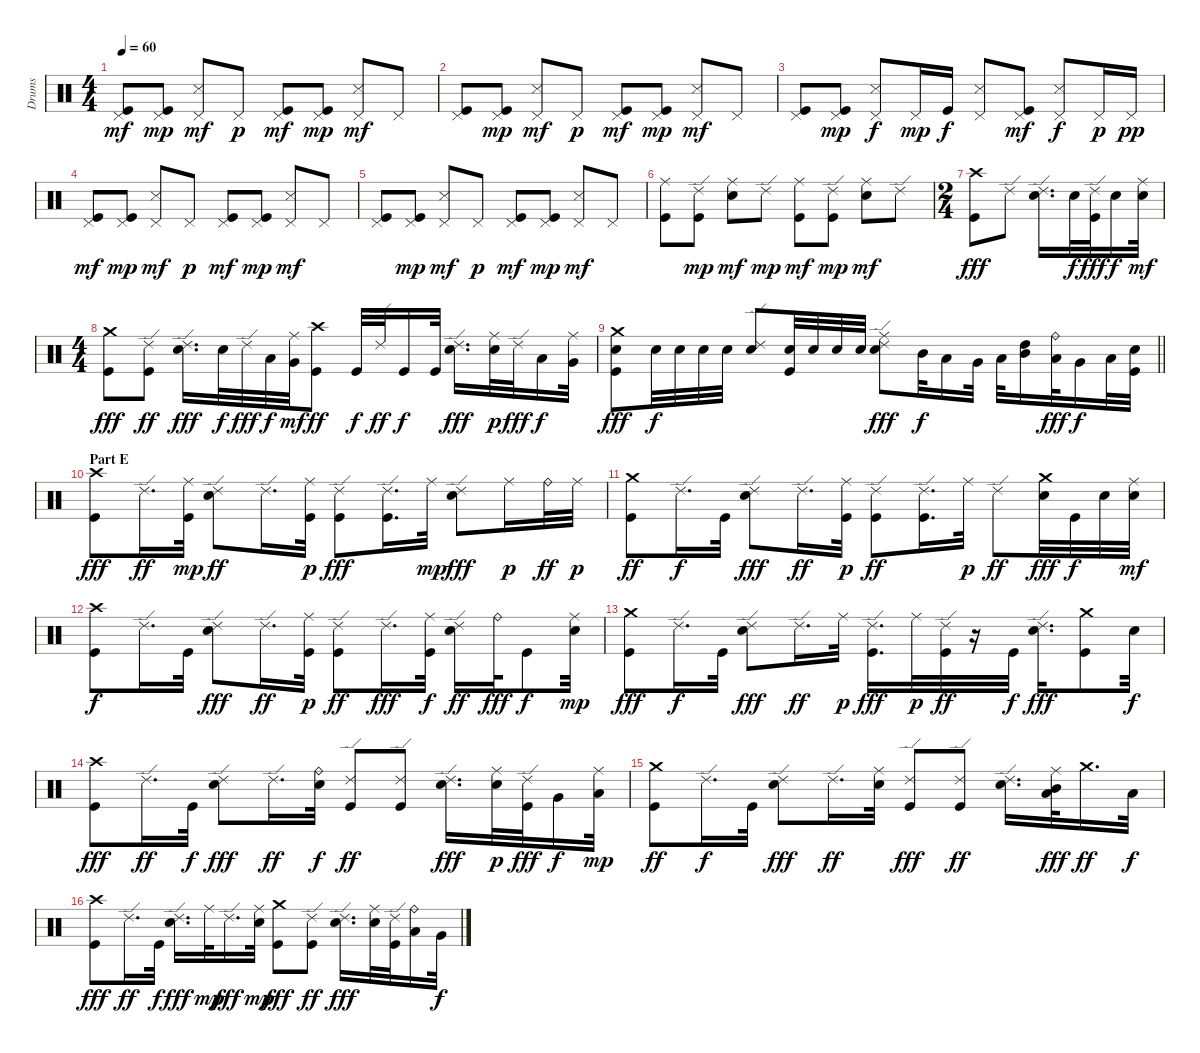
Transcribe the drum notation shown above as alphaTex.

\track ("Drums" "Drums") {instrument percussion}
\staff {score}
\articulation defaults
\ts (4 4)
\tempo 60
\clef neutral
\ks c
("Pedal Hi-Hat (hit)" "Kick (hit)").8{dy mf} ("Pedal Hi-Hat (hit)" "Kick (hit)").8{dy mp} ("Pedal Hi-Hat (hit)" "Snare (side stick) 3").8{dy mf} "Pedal Hi-Hat (hit)".8{dy p} ("Pedal Hi-Hat (hit)" "Kick (hit)").8{dy mf} ("Pedal Hi-Hat (hit)" "Kick (hit)").8{dy mp} ("Pedal Hi-Hat (hit)" "Snare (side stick) 3").8{dy mf} "Pedal Hi-Hat (hit)".8 |
("Pedal Hi-Hat (hit)" "Kick (hit)").8 ("Pedal Hi-Hat (hit)" "Kick (hit)").8{dy mp} ("Pedal Hi-Hat (hit)" "Snare (side stick) 3").8{dy mf} "Pedal Hi-Hat (hit)".8{dy p} ("Pedal Hi-Hat (hit)" "Kick (hit)").8{dy mf} ("Pedal Hi-Hat (hit)" "Kick (hit)").8{dy mp} ("Pedal Hi-Hat (hit)" "Snare (side stick) 3").8{dy mf} "Pedal Hi-Hat (hit)".8 |
("Pedal Hi-Hat (hit)" "Kick (hit)").8 ("Pedal Hi-Hat (hit)" "Kick (hit)").8{dy mp} ("Pedal Hi-Hat (hit)" "Snare (side stick) 3").8{dy f} "Pedal Hi-Hat (hit)".16{dy mp} "Kick (hit)".16{dy f} ("Pedal Hi-Hat (hit)" "Snare (side stick) 3").8 ("Pedal Hi-Hat (hit)" "Kick (hit)").8{dy mf} ("Pedal Hi-Hat (hit)" "Snare (side stick) 3").8{dy f} "Pedal Hi-Hat (hit)".16{dy p} "Pedal Hi-Hat (hit)".16{dy pp} |
("Pedal Hi-Hat (hit)" "Kick (hit)").8{dy mf} ("Pedal Hi-Hat (hit)" "Kick (hit)").8{dy mp} ("Pedal Hi-Hat (hit)" "Snare (side stick) 3").8{dy mf} "Pedal Hi-Hat (hit)".8{dy p} ("Pedal Hi-Hat (hit)" "Kick (hit)").8{dy mf} ("Pedal Hi-Hat (hit)" "Kick (hit)").8{dy mp} ("Pedal Hi-Hat (hit)" "Snare (side stick) 3").8{dy mf} "Pedal Hi-Hat (hit)".8 |
("Pedal Hi-Hat (hit)" "Kick (hit)").8 ("Pedal Hi-Hat (hit)" "Kick (hit)").8{dy mp} ("Pedal Hi-Hat (hit)" "Snare (side stick) 3").8{dy mf} "Pedal Hi-Hat (hit)".8{dy p} ("Pedal Hi-Hat (hit)" "Kick (hit)").8{dy mf} ("Pedal Hi-Hat (hit)" "Kick (hit)").8{dy mp} ("Pedal Hi-Hat (hit)" "Snare (side stick) 3").8{dy mf} "Pedal Hi-Hat (hit)".8 |
("Ride (middle)" "Kick (hit)").8{volume 12} ("Ride (edge) 2" "Kick (hit)").8{dy mp} ("Ride (middle)" "Electric Snare (hit)").8{dy mf} "Ride (edge) 2".8{dy mp} ("Ride (middle)" "Kick (hit)").8{dy mf} ("Ride (edge) 2" "Kick (hit)").8{dy mp} ("Ride (middle)" "Electric Snare (hit)").8{dy mf} "Ride (edge) 2".8 |
\ts (2 4)
("Crash high (hit)" "Kick (hit)").8{dy fff} "Ride (edge) 2".8 ("Ride (edge) 2" "Electric Snare (hit)").16{d} "Electric Snare (hit)".32{dy f} ("Ride (edge) 2" "Kick (hit)").32{dy fff} "Electric Snare (hit)".16{dy f} ("Ride (middle)" "Electric Snare (hit)").32{dy mf} |
\ts (4 4)
("Crash medium (hit)" "Kick (hit)").8{dy fff} ("Ride (edge) 2" "Kick (hit)").8{dy ff} ("Ride (edge) 2" "Electric Snare (hit)").16{d dy fff} "Electric Snare (hit)".32{dy f} "Ride (edge) 2".32{dy fff} "Low Tom (hit)".32{dy f} ("Ride (middle)" "Very Low Tom (hit)").32{dy mf} ("Crash high (hit)" "Kick (hit)").8{dy ff} "Kick (hit)".32{dy f} "Ride (edge) 2".32{dy ff} "Kick (hit)".16{dy f} "Kick (hit)".32 ("Ride (edge) 2" "Electric Snare (hit)").16{d dy fff} ("Ride (middle)" "Electric Snare (hit)").32{dy p} "Ride (edge) 2".32{dy fff} "Low Tom (hit)".16{dy f} ("Ride (middle)" "Very Low Tom (hit)").32 |
\barLineRight lightlight
("Crash medium (hit)" "Electric Snare (hit)" "Kick (hit)").8{dy fff} "Electric Snare (hit)".32{dy f} "Electric Snare (hit)".32 "Electric Snare (hit)".32 "Electric Snare (hit)".32 ("Ride (edge) 2" "Electric Snare (hit)").8 ("Electric Snare (hit)" "Kick (hit)").32 "Electric Snare (hit)".32 "Electric Snare (hit)".32 "Electric Snare (hit)".32 ("Ride (edge) 2" "Ride (middle)" "Electric Snare (hit)").8{dy fff} "Mid Tom (hit)".32{dy f} "Low Tom (hit)".16 "Very Low Tom (hit)".32 "Low Floor Tom (hit)".32 ("High Tom (hit)" "Mid Tom (hit)").16 ("Ride (bell)" "Low Tom (hit)").32{dy fff} "Very Low Tom (hit)".16{dy f} "Low Floor Tom (hit)".32 ("Electric Snare (hit)" "Kick (hit)").32 |
\section ("" "Part E")
("Crash high (hit)" "Kick (hit)").8{dy fff volume 13} "Ride (edge) 2".16{d dy ff} ("Ride (middle)" "Kick (hit)").32{dy mp} ("Ride (edge) 2" "Electric Snare (hit)").8{dy ff} "Ride (edge) 2".16{d} ("Ride (middle)" "Kick (hit)").32{dy p} ("Ride (edge) 2" "Kick (hit)").8{dy fff} ("Ride (edge) 2" "Kick (hit)").16{d} "Ride (middle)".32{dy mp} ("Ride (edge) 2" "Electric Snare (hit)").8{dy fff} "Ride (middle)".16{dy p} "Ride (bell)".32{dy ff} "Ride (middle)".32{dy p} |
("Crash medium (hit)" "Kick (hit)").8{dy ff} "Ride (edge) 2".16{d dy f} "Kick (hit)".32 ("Ride (edge) 2" "Electric Snare (hit)").8{dy fff} "Ride (edge) 2".16{d dy ff} ("Ride (middle)" "Kick (hit)").32{dy p} ("Ride (edge) 2" "Kick (hit)").8{dy ff} ("Ride (edge) 2" "Kick (hit)").16{d} "Ride (middle)".32{dy p} "Ride (edge) 2".8{dy ff} ("Crash medium (hit)" "Electric Snare (hit)").32{dy fff} "Kick (hit)".32{dy f} "Electric Snare (hit)".32 ("Ride (middle)" "Electric Snare (hit)").32{dy mf} |
("Crash high (hit)" "Kick (hit)").8{dy f} "Ride (edge) 2".16{d} "Kick (hit)".32 ("Ride (edge) 2" "Electric Snare (hit)").8{dy fff} "Ride (edge) 2".16{d dy ff} ("Ride (middle)" "Kick (hit)").32{dy p} ("Ride (edge) 2" "Kick (hit)").8{dy ff} "Ride (edge) 2".16{d dy fff} ("Ride (middle)" "Kick (hit)").32{dy f} ("Ride (edge) 2" "Electric Snare (hit)").16{dy ff} "Ride (bell)".32{dy fff} "Kick (hit)".8{dy f} ("Ride (middle)" "Electric Snare (hit)").32{dy mp} |
("Crash medium (hit)" "Kick (hit)").8{dy fff} "Ride (edge) 2".16{d dy f} "Kick (hit)".32 ("Ride (edge) 2" "Electric Snare (hit)").8{dy fff} "Ride (edge) 2".16{d dy ff} "Ride (middle)".32{dy p} ("Ride (edge) 2" "Kick (hit)").16{d dy fff} "Ride (middle)".32{dy p} ("Ride (edge) 2" "Kick (hit)").32{dy ff} r.16 "Kick (hit)".32{dy f} ("Ride (edge) 2" "Electric Snare (hit)").16{d dy fff} ("Crash medium (hit)" "Kick (hit)").8 "Electric Snare (hit)".32{dy f} |
("Crash high (hit)" "Kick (hit)").8{dy fff} "Ride (edge) 2".16{d dy ff} "Kick (hit)".32{dy f} ("Ride (edge) 2" "Electric Snare (hit)").8{dy fff} "Ride (edge) 2".16{d dy ff} ("Ride (bell)" "Electric Snare (hit)").32{dy f} ("Ride (edge) 2" "Kick (hit)").8{dy ff} ("Ride (edge) 2" "Kick (hit)").8 ("Ride (edge) 2" "Electric Snare (hit)").16{d dy fff} ("Ride (middle)" "Electric Snare (hit)").32{dy p} ("Ride (edge) 2" "Kick (hit)").32{dy fff} "Very Low Tom (hit)".16{dy f} ("Ride (middle)" "Low Floor Tom (hit)").32{dy mp} |
("Crash medium (hit)" "Kick (hit)").8{dy ff} "Ride (edge) 2".16{d dy f} "Kick (hit)".32 ("Ride (edge) 2" "Electric Snare (hit)").8{dy fff} "Ride (edge) 2".16{d dy ff} ("Ride (middle)" "Electric Snare (hit)").32 ("Ride (edge) 2" "Kick (hit)").8{dy fff} ("Ride (edge) 2" "Kick (hit)").8{dy ff} ("Ride (edge) 2" "Electric Snare (hit)").16{d} ("Ride (middle)" "Mid Tom (hit)" "Low Tom (hit)").32{dy fff} "Crash medium (hit)".16{d dy ff} "Low Floor Tom (hit)".32{dy f} |
("Crash high (hit)" "Kick (hit)").8{dy fff} "Ride (edge) 2".16{d dy ff} "Kick (hit)".32{dy f} ("Ride (edge) 2" "Electric Snare (hit)").16{d dy fff} "Ride (middle)".32{dy mp} "Ride (edge) 2".16{d dy fff} ("Ride (middle)" "Electric Snare (hit)").32{dy mp} ("Crash medium (hit)" "Kick (hit)").8{dy fff} ("Ride (edge) 2" "Kick (hit)").8{dy ff} ("Ride (edge) 2" "Electric Snare (hit)").16{d dy fff} ("Ride (middle)" "Electric Snare (hit)").32 ("Ride (edge) 2" "Kick (hit)").32 ("Ride (bell)" "Low Tom (hit)").16 "Very Low Tom (hit)".32{dy f}
